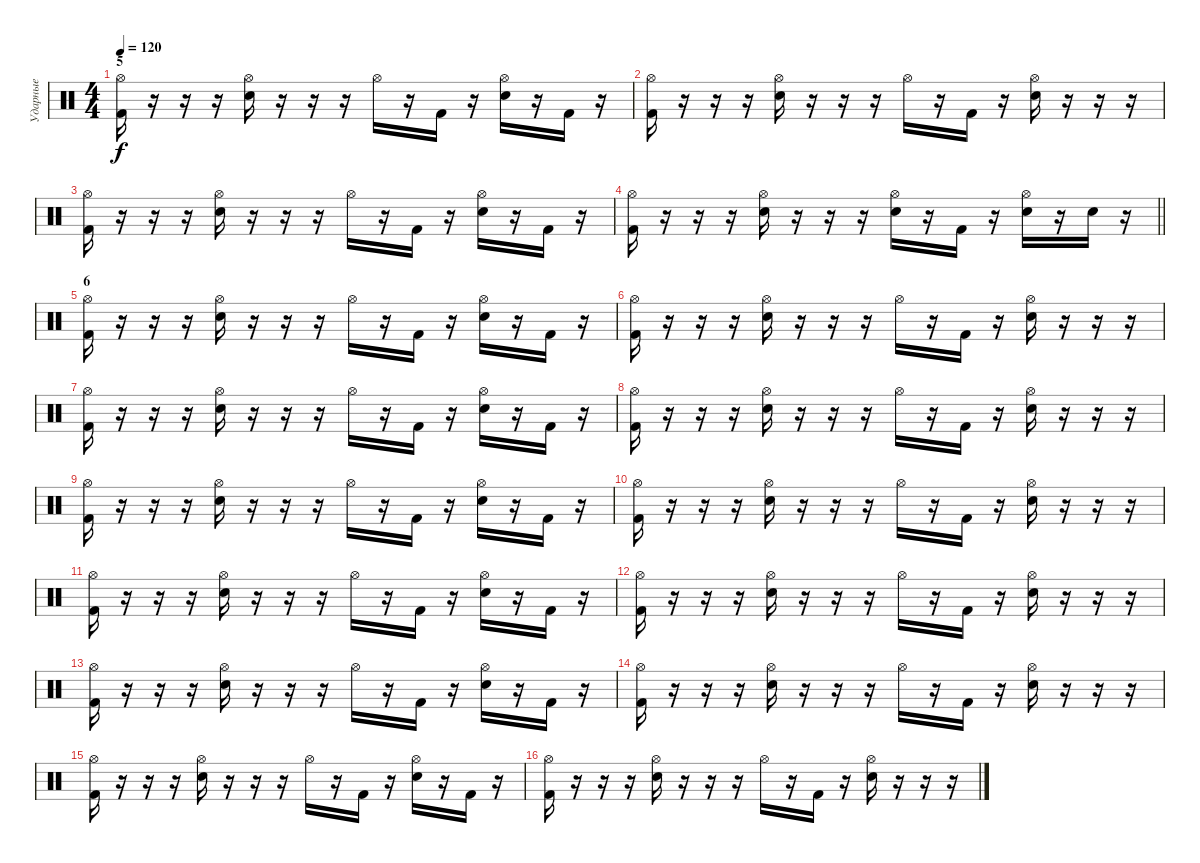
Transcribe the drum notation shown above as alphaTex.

\track ("Ударные" "Ударные") {instrument percussion}
\staff {score}
\articulation defaults
\ts (4 4)
\section ("" "5")
\tempo 120
\clef neutral
\ks c
("Hi-Hat (open)" "Kick (hit) 2").16{dy f} r.16 r.16 r.16 ("Hi-Hat (open)" "Snare (hit) 2").16 r.16 r.16 r.16 "Hi-Hat (open)".16 r.16 "Kick (hit) 2".16 r.16 ("Hi-Hat (open)" "Snare (hit) 2").16 r.16 "Kick (hit) 2".16 r.16 |
("Hi-Hat (open)" "Kick (hit) 2").16 r.16 r.16 r.16 ("Hi-Hat (open)" "Snare (hit) 2").16 r.16 r.16 r.16 "Hi-Hat (open)".16 r.16 "Kick (hit) 2".16 r.16 ("Hi-Hat (open)" "Snare (hit) 2").16 r.16 r.16 r.16 |
("Hi-Hat (open)" "Kick (hit) 2").16 r.16 r.16 r.16 ("Hi-Hat (open)" "Snare (hit) 2").16 r.16 r.16 r.16 "Hi-Hat (open)".16 r.16 "Kick (hit) 2".16 r.16 ("Hi-Hat (open)" "Snare (hit) 2").16 r.16 "Kick (hit) 2".16 r.16 |
\barLineRight lightlight
("Hi-Hat (open)" "Kick (hit) 2").16 r.16 r.16 r.16 ("Hi-Hat (open)" "Snare (hit) 2").16 r.16 r.16 r.16 ("Hi-Hat (open)" "Snare (hit) 2").16 r.16 "Kick (hit) 2".16 r.16 ("Hi-Hat (open)" "Snare (hit) 2").16 r.16 "Snare (hit) 2".16 r.16 |
\section ("" "6")
("Hi-Hat (open)" "Kick (hit) 2").16 r.16 r.16 r.16 ("Hi-Hat (open)" "Snare (hit) 2").16 r.16 r.16 r.16 "Hi-Hat (open)".16 r.16 "Kick (hit) 2".16 r.16 ("Hi-Hat (open)" "Snare (hit) 2").16 r.16 "Kick (hit) 2".16 r.16 |
("Hi-Hat (open)" "Kick (hit) 2").16 r.16 r.16 r.16 ("Hi-Hat (open)" "Snare (hit) 2").16 r.16 r.16 r.16 "Hi-Hat (open)".16 r.16 "Kick (hit) 2".16 r.16 ("Hi-Hat (open)" "Snare (hit) 2").16 r.16 r.16 r.16 |
("Hi-Hat (open)" "Kick (hit) 2").16 r.16 r.16 r.16 ("Hi-Hat (open)" "Snare (hit) 2").16 r.16 r.16 r.16 "Hi-Hat (open)".16 r.16 "Kick (hit) 2".16 r.16 ("Hi-Hat (open)" "Snare (hit) 2").16 r.16 "Kick (hit) 2".16 r.16 |
("Hi-Hat (open)" "Kick (hit) 2").16 r.16 r.16 r.16 ("Hi-Hat (open)" "Snare (hit) 2").16 r.16 r.16 r.16 "Hi-Hat (open)".16 r.16 "Kick (hit) 2".16 r.16 ("Hi-Hat (open)" "Snare (hit) 2").16 r.16 r.16 r.16 |
("Hi-Hat (open)" "Kick (hit) 2").16 r.16 r.16 r.16 ("Hi-Hat (open)" "Snare (hit) 2").16 r.16 r.16 r.16 "Hi-Hat (open)".16 r.16 "Kick (hit) 2".16 r.16 ("Hi-Hat (open)" "Snare (hit) 2").16 r.16 "Kick (hit) 2".16 r.16 |
("Hi-Hat (open)" "Kick (hit) 2").16 r.16 r.16 r.16 ("Hi-Hat (open)" "Snare (hit) 2").16 r.16 r.16 r.16 "Hi-Hat (open)".16 r.16 "Kick (hit) 2".16 r.16 ("Hi-Hat (open)" "Snare (hit) 2").16 r.16 r.16 r.16 |
("Hi-Hat (open)" "Kick (hit) 2").16 r.16 r.16 r.16 ("Hi-Hat (open)" "Snare (hit) 2").16 r.16 r.16 r.16 "Hi-Hat (open)".16 r.16 "Kick (hit) 2".16 r.16 ("Hi-Hat (open)" "Snare (hit) 2").16 r.16 "Kick (hit) 2".16 r.16 |
("Hi-Hat (open)" "Kick (hit) 2").16 r.16 r.16 r.16 ("Hi-Hat (open)" "Snare (hit) 2").16 r.16 r.16 r.16 "Hi-Hat (open)".16 r.16 "Kick (hit) 2".16 r.16 ("Hi-Hat (open)" "Snare (hit) 2").16 r.16 r.16 r.16 |
("Hi-Hat (open)" "Kick (hit) 2").16 r.16 r.16 r.16 ("Hi-Hat (open)" "Snare (hit) 2").16 r.16 r.16 r.16 "Hi-Hat (open)".16 r.16 "Kick (hit) 2".16 r.16 ("Hi-Hat (open)" "Snare (hit) 2").16 r.16 "Kick (hit) 2".16 r.16 |
("Hi-Hat (open)" "Kick (hit) 2").16 r.16 r.16 r.16 ("Hi-Hat (open)" "Snare (hit) 2").16 r.16 r.16 r.16 "Hi-Hat (open)".16 r.16 "Kick (hit) 2".16 r.16 ("Hi-Hat (open)" "Snare (hit) 2").16 r.16 r.16 r.16 |
("Hi-Hat (open)" "Kick (hit) 2").16 r.16 r.16 r.16 ("Hi-Hat (open)" "Snare (hit) 2").16 r.16 r.16 r.16 "Hi-Hat (open)".16 r.16 "Kick (hit) 2".16 r.16 ("Hi-Hat (open)" "Snare (hit) 2").16 r.16 "Kick (hit) 2".16 r.16 |
("Hi-Hat (open)" "Kick (hit) 2").16 r.16 r.16 r.16 ("Hi-Hat (open)" "Snare (hit) 2").16 r.16 r.16 r.16 "Hi-Hat (open)".16 r.16 "Kick (hit) 2".16 r.16 ("Hi-Hat (open)" "Snare (hit) 2").16 r.16 r.16 r.16
